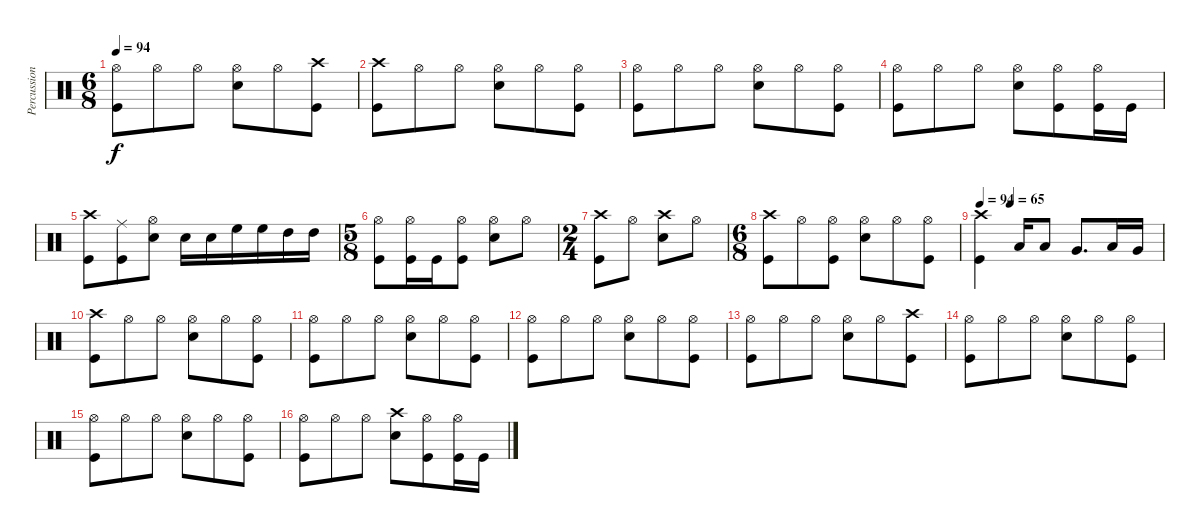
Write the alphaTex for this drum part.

\track ("Percussioni" "Percussion") {instrument percussion}
\staff {score}
\articulation defaults
\ts (6 8)
\tempo 94
\clef neutral
\ks c
("Hi-Hat (open)" "Kick (hit)").8{dy f} "Hi-Hat (open)".8 "Hi-Hat (open)".8 ("Snare (hit) 2" "Hi-Hat (open)").8 "Hi-Hat (open)".8 ("Crash high (hit)" "Kick (hit)").8 |
("Crash high (hit)" "Kick (hit)").8 "Hi-Hat (open)".8 "Hi-Hat (open)".8 ("Snare (hit) 2" "Hi-Hat (open)").8 "Hi-Hat (open)".8 ("Hi-Hat (open)" "Kick (hit)").8 |
("Hi-Hat (open)" "Kick (hit)").8 "Hi-Hat (open)".8 "Hi-Hat (open)".8 ("Snare (hit) 2" "Hi-Hat (open)").8 "Hi-Hat (open)".8 ("Hi-Hat (open)" "Kick (hit)").8 |
("Hi-Hat (open)" "Kick (hit)").8 "Hi-Hat (open)".8 "Hi-Hat (open)".8 ("Hi-Hat (open)" "Snare (hit) 2").8 ("Hi-Hat (open)" "Kick (hit)").8 ("Hi-Hat (open)" "Kick (hit)").16 "Kick (hit)".16 |
("Crash high (hit)" "Kick (hit)").8 ("Ride (middle)" "Kick (hit)").8 ("Hi-Hat (open)" "Snare (hit) 2").8 "Snare (hit) 2".16 "Snare (hit) 2".16 "High Floor Tom (hit)".16 "High Floor Tom (hit)".16 "High Tom (hit)".16 "High Tom (hit)".16 |
\ts (5 8)
("Hi-Hat (open)" "Kick (hit)").8 ("Hi-Hat (open)" "Kick (hit)").16 "Kick (hit)".16 ("Kick (hit)" "Hi-Hat (open)").8 ("Hi-Hat (open)" "Snare (hit) 2").8 "Hi-Hat (open)".8 |
\ts (2 4)
("Crash high (hit)" "Kick (hit)").8 "Hi-Hat (open)".8 ("Crash high (hit)" "Snare (hit) 2").8 "Hi-Hat (open)".8 |
\ts (6 8)
("Crash high (hit)" "Kick (hit)").8 "Hi-Hat (open)".8 ("Hi-Hat (open)" "Kick (hit)").8 ("Snare (hit) 2" "Hi-Hat (open)").8 "Hi-Hat (open)".8 ("Hi-Hat (open)" "Kick (hit)").8 |
\tempo (65 0.16666666666666666)
\tempo 94
("Crash high (hit)" "Kick (hit)").4 "Low Tom (hit)".16 "Low Tom (hit)".8 "Very Low Tom (hit)".8{d} "Low Tom (hit)".16 "Very Low Tom (hit)".16 |
("Crash high (hit)" "Kick (hit)").8 "Hi-Hat (open)".8 "Hi-Hat (open)".8 ("Snare (hit) 2" "Hi-Hat (open)").8 "Hi-Hat (open)".8 ("Hi-Hat (open)" "Kick (hit)").8 |
("Hi-Hat (open)" "Kick (hit)").8 "Hi-Hat (open)".8 "Hi-Hat (open)".8 ("Snare (hit) 2" "Hi-Hat (open)").8 "Hi-Hat (open)".8 ("Hi-Hat (open)" "Kick (hit)").8 |
("Hi-Hat (open)" "Kick (hit)").8 "Hi-Hat (open)".8 "Hi-Hat (open)".8 ("Snare (hit) 2" "Hi-Hat (open)").8 "Hi-Hat (open)".8 ("Hi-Hat (open)" "Kick (hit)").8 |
("Hi-Hat (open)" "Kick (hit)").8 "Hi-Hat (open)".8 "Hi-Hat (open)".8 ("Snare (hit) 2" "Hi-Hat (open)").8 "Hi-Hat (open)".8 ("Crash high (hit)" "Kick (hit)").8 |
("Hi-Hat (open)" "Kick (hit)").8 "Hi-Hat (open)".8 "Hi-Hat (open)".8 ("Snare (hit) 2" "Hi-Hat (open)").8 "Hi-Hat (open)".8 ("Hi-Hat (open)" "Kick (hit)").8 |
("Hi-Hat (open)" "Kick (hit)").8 "Hi-Hat (open)".8 "Hi-Hat (open)".8 ("Snare (hit) 2" "Hi-Hat (open)").8 "Hi-Hat (open)".8 ("Hi-Hat (open)" "Kick (hit)").8 |
("Hi-Hat (open)" "Kick (hit)").8 "Hi-Hat (open)".8 "Hi-Hat (open)".8 ("Crash high (hit)" "Snare (hit) 2").8 ("Hi-Hat (open)" "Kick (hit)").8 ("Hi-Hat (open)" "Kick (hit)").16 "Kick (hit)".16
